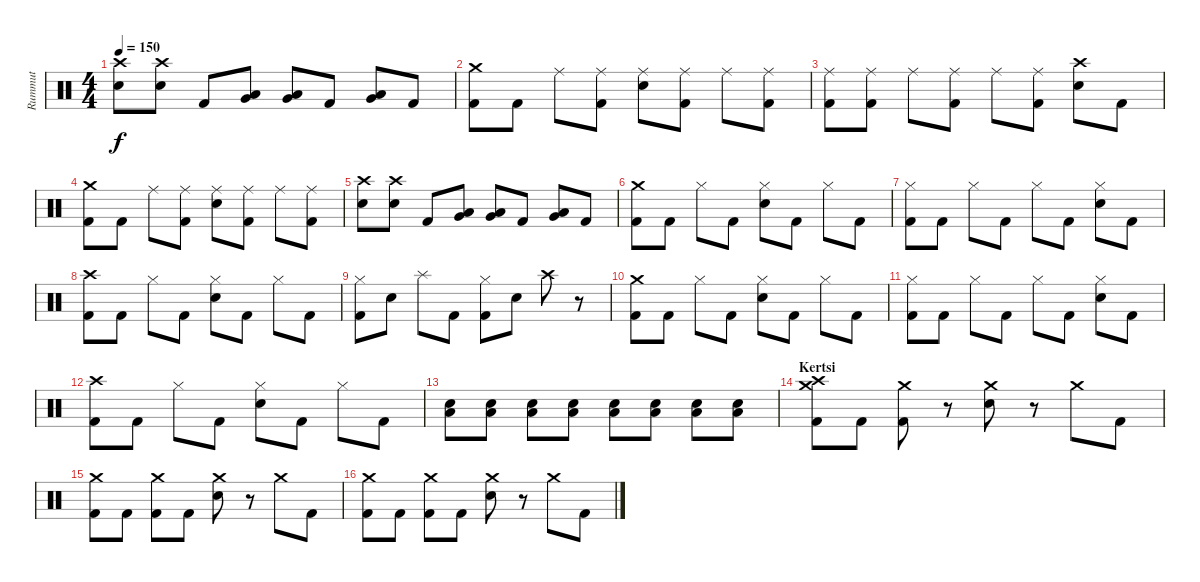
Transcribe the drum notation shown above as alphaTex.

\track ("Rummut" "Rummut") {instrument percussion}
\staff {score}
\articulation defaults
\ts (4 4)
\tempo 150
\clef neutral
\ks c
("Crash high (hit)" "Snare (hit) 2").8{dy f} ("Crash high (hit)" "Snare (hit) 2").8 "Kick (hit) 2".8 ("Low Tom (hit)" "Very Low Tom (hit)").8 ("Low Tom (hit)" "Very Low Tom (hit)").8 "Kick (hit) 2".8 ("Very Low Tom (hit)" "Low Floor Tom (hit)").8 "Kick (hit) 2".8 |
("Crash medium (hit)" "Kick (hit) 2").8 "Kick (hit) 2".8 "Ride (middle)".8 ("Ride (middle)" "Kick (hit) 2").8 ("Ride (middle)" "Snare (hit) 2").8 ("Ride (middle)" "Kick (hit) 2").8 "Ride (middle)".8 ("Ride (middle)" "Kick (hit) 2").8 |
("Ride (middle)" "Kick (hit) 2").8 ("Ride (middle)" "Kick (hit) 2").8 "Ride (middle)".8 ("Ride (middle)" "Kick (hit) 2").8 "Ride (middle)".8 ("Ride (middle)" "Kick (hit) 2").8 ("Crash high (hit)" "Snare (hit) 2").8 "Kick (hit) 2".8 |
("Crash medium (hit)" "Kick (hit) 2").8 "Kick (hit) 2".8 "Ride (middle)".8 ("Ride (middle)" "Kick (hit) 2").8 ("Ride (middle)" "Snare (hit) 2").8 ("Ride (middle)" "Kick (hit) 2").8 "Ride (middle)".8 ("Ride (middle)" "Kick (hit) 2").8 |
("Crash high (hit)" "Snare (hit) 2").8 ("Crash high (hit)" "Snare (hit) 2").8 "Kick (hit) 2".8 ("Low Tom (hit)" "Very Low Tom (hit)").8 ("Low Tom (hit)" "Very Low Tom (hit)").8 "Kick (hit) 2".8 ("Very Low Tom (hit)" "Low Floor Tom (hit)").8 "Kick (hit) 2".8 |
("Crash medium (hit)" "Kick (hit) 2").8 "Kick (hit) 2".8 "Hi-Hat (closed)".8 "Kick (hit) 2".8 ("Hi-Hat (closed)" "Snare (hit) 2").8 "Kick (hit) 2".8 "Hi-Hat (closed)".8 "Kick (hit) 2".8 |
("Hi-Hat (closed)" "Kick (hit) 2").8 "Kick (hit) 2".8 "Hi-Hat (closed)".8 "Kick (hit) 2".8 "Hi-Hat (closed)".8 "Kick (hit) 2".8 ("Hi-Hat (closed)" "Snare (hit) 2").8 "Kick (hit) 2".8 |
("Crash high (hit)" "Kick (hit) 2").8 "Kick (hit) 2".8 "Hi-Hat (closed)".8 "Kick (hit) 2".8 ("Hi-Hat (closed)" "Snare (hit) 2").8 "Kick (hit) 2".8 "Hi-Hat (closed)".8 "Kick (hit) 2".8 |
("Hi-Hat (closed)" "Kick (hit) 2").8 "Snare (hit) 2".8 "Splash (hit)".8 "Kick (hit) 2".8 ("Hi-Hat (closed)" "Kick (hit) 2").8 "Snare (hit) 2".8 "Crash high (hit)".8 r.8 |
("Crash medium (hit)" "Kick (hit) 2").8 "Kick (hit) 2".8 "Hi-Hat (closed)".8 "Kick (hit) 2".8 ("Hi-Hat (closed)" "Snare (hit) 2").8 "Kick (hit) 2".8 "Hi-Hat (closed)".8 "Kick (hit) 2".8 |
("Hi-Hat (closed)" "Kick (hit) 2").8 "Kick (hit) 2".8 "Hi-Hat (closed)".8 "Kick (hit) 2".8 "Hi-Hat (closed)".8 "Kick (hit) 2".8 ("Hi-Hat (closed)" "Snare (hit) 2").8 "Kick (hit) 2".8 |
("Crash high (hit)" "Kick (hit) 2").8 "Kick (hit) 2".8 "Hi-Hat (closed)".8 "Kick (hit) 2".8 ("Hi-Hat (closed)" "Snare (hit) 2").8 "Kick (hit) 2".8 "Hi-Hat (closed)".8 "Kick (hit) 2".8 |
("Snare (hit) 2" "Low Floor Tom (hit)").8 ("Snare (hit) 2" "Low Floor Tom (hit)").8 ("Snare (hit) 2" "Low Floor Tom (hit)").8 ("Snare (hit) 2" "Low Floor Tom (hit)").8 ("Snare (hit) 2" "Low Floor Tom (hit)").8 ("Snare (hit) 2" "Low Floor Tom (hit)").8 ("Snare (hit) 2" "Low Floor Tom (hit)").8 ("Snare (hit) 2" "Low Floor Tom (hit)").8 |
\section ("" "Kertsi")
("Crash high (hit)" "Crash medium (hit)" "Kick (hit) 2").8 "Kick (hit) 2".8 ("Crash medium (hit)" "Kick (hit) 2").8 r.8 ("Crash medium (hit)" "Snare (hit) 2").8 r.8 "Crash medium (hit)".8 "Kick (hit) 2".8 |
("Crash medium (hit)" "Kick (hit) 2").8 "Kick (hit) 2".8 ("Crash medium (hit)" "Kick (hit) 2").8 "Kick (hit) 2".8 ("Crash medium (hit)" "Snare (hit) 2").8 r.8 "Crash medium (hit)".8 "Kick (hit) 2".8 |
("Crash medium (hit)" "Kick (hit) 2").8 "Kick (hit) 2".8 ("Crash medium (hit)" "Kick (hit) 2").8 "Kick (hit) 2".8 ("Crash medium (hit)" "Snare (hit) 2").8 r.8 "Crash medium (hit)".8 "Kick (hit) 2".8
